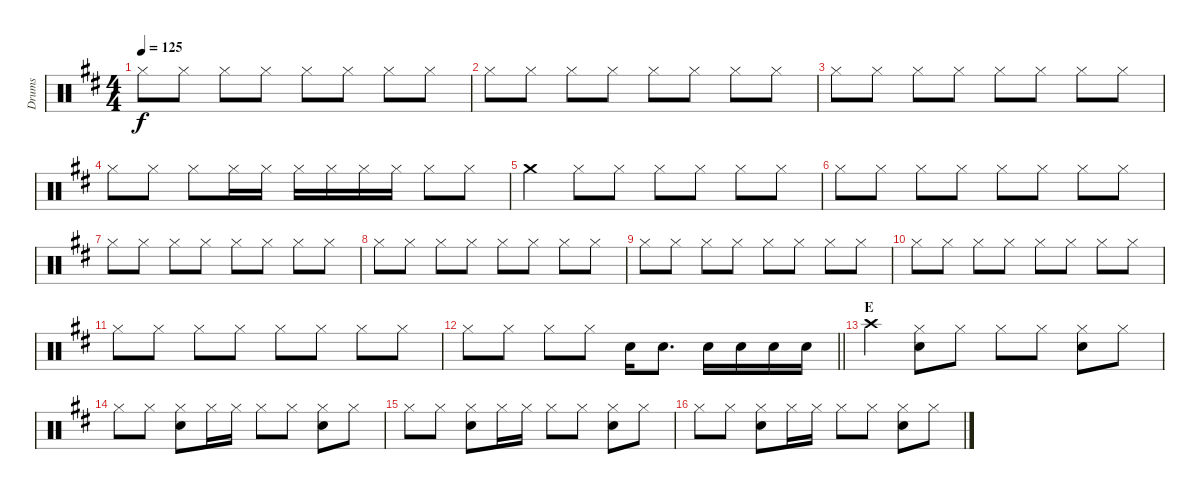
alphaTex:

\track ("Drums" "Drums") {instrument percussion}
\staff {score}
\articulation defaults
\ts (4 4)
\tempo 125
\clef neutral
\ks d "Hi-Hat (closed)".8{dy f} "Hi-Hat (closed)".8 "Hi-Hat (closed)".8 "Hi-Hat (closed)".8 "Hi-Hat (closed)".8 "Hi-Hat (closed)".8 "Hi-Hat (closed)".8 "Hi-Hat (closed)".8
|
"Hi-Hat (closed)".8 "Hi-Hat (closed)".8 "Hi-Hat (closed)".8 "Hi-Hat (closed)".8 "Hi-Hat (closed)".8 "Hi-Hat (closed)".8 "Hi-Hat (closed)".8 "Hi-Hat (closed)".8 |
"Hi-Hat (closed)".8 "Hi-Hat (closed)".8 "Hi-Hat (closed)".8 "Hi-Hat (closed)".8 "Hi-Hat (closed)".8 "Hi-Hat (closed)".8 "Hi-Hat (closed)".8 "Hi-Hat (closed)".8 |
"Hi-Hat (closed)".8 "Hi-Hat (closed)".8 "Hi-Hat (closed)".8 "Hi-Hat (closed)".16 "Hi-Hat (closed)".16 "Hi-Hat (closed)".16 "Hi-Hat (closed)".16 "Hi-Hat (closed)".16 "Hi-Hat (closed)".16 "Hi-Hat (closed)".8 "Hi-Hat (closed)".8 |
"Crash medium (hit)".4 "Hi-Hat (closed)".8 "Hi-Hat (closed)".8 "Hi-Hat (closed)".8 "Hi-Hat (closed)".8 "Hi-Hat (closed)".8 "Hi-Hat (closed)".8 |
"Hi-Hat (closed)".8 "Hi-Hat (closed)".8 "Hi-Hat (closed)".8 "Hi-Hat (closed)".8 "Hi-Hat (closed)".8 "Hi-Hat (closed)".8 "Hi-Hat (closed)".8 "Hi-Hat (closed)".8 |
"Hi-Hat (closed)".8 "Hi-Hat (closed)".8 "Hi-Hat (closed)".8 "Hi-Hat (closed)".8 "Hi-Hat (closed)".8 "Hi-Hat (closed)".8 "Hi-Hat (closed)".8 "Hi-Hat (closed)".8 |
"Hi-Hat (closed)".8 "Hi-Hat (closed)".8 "Hi-Hat (closed)".8 "Hi-Hat (closed)".8 "Hi-Hat (closed)".8 "Hi-Hat (closed)".8 "Hi-Hat (closed)".8 "Hi-Hat (closed)".8 |
"Hi-Hat (closed)".8 "Hi-Hat (closed)".8 "Hi-Hat (closed)".8 "Hi-Hat (closed)".8 "Hi-Hat (closed)".8 "Hi-Hat (closed)".8 "Hi-Hat (closed)".8 "Hi-Hat (closed)".8 |
"Hi-Hat (closed)".8 "Hi-Hat (closed)".8 "Hi-Hat (closed)".8 "Hi-Hat (closed)".8 "Hi-Hat (closed)".8 "Hi-Hat (closed)".8 "Hi-Hat (closed)".8 "Hi-Hat (closed)".8 |
"Hi-Hat (closed)".8 "Hi-Hat (closed)".8 "Hi-Hat (closed)".8 "Hi-Hat (closed)".8 "Hi-Hat (closed)".8 "Hi-Hat (closed)".8 "Hi-Hat (closed)".8 "Hi-Hat (closed)".8 |
\barLineRight lightlight "Hi-Hat (closed)".8 "Hi-Hat (closed)".8 "Hi-Hat (closed)".8 "Hi-Hat (closed)".8 "Snare (hit) 2".16 "Snare (hit) 2".8{d} "Snare (hit) 2".16 "Snare (hit) 2".16 "Snare (hit) 2".16 "Snare (hit) 2".16
|
\section ("" "E")
"Crash high (hit)".4 ("Hi-Hat (closed)" "Snare (hit) 2").8 "Hi-Hat (closed)".8 "Hi-Hat (closed)".8 "Hi-Hat (closed)".8 ("Hi-Hat (closed)" "Snare (hit) 2").8 "Hi-Hat (closed)".8 |
"Hi-Hat (closed)".8 "Hi-Hat (closed)".8 ("Hi-Hat (closed)" "Snare (hit) 2").8 "Hi-Hat (closed)".16 "Hi-Hat (closed)".16 "Hi-Hat (closed)".8 "Hi-Hat (closed)".8 ("Hi-Hat (closed)" "Snare (hit) 2").8 "Hi-Hat (closed)".8 |
"Hi-Hat (closed)".8 "Hi-Hat (closed)".8 ("Hi-Hat (closed)" "Snare (hit) 2").8 "Hi-Hat (closed)".16 "Hi-Hat (closed)".16 "Hi-Hat (closed)".8 "Hi-Hat (closed)".8 ("Hi-Hat (closed)" "Snare (hit) 2").8 "Hi-Hat (closed)".8 |
"Hi-Hat (closed)".8 "Hi-Hat (closed)".8 ("Hi-Hat (closed)" "Snare (hit) 2").8 "Hi-Hat (closed)".16 "Hi-Hat (closed)".16 "Hi-Hat (closed)".8 "Hi-Hat (closed)".8 ("Hi-Hat (closed)" "Snare (hit) 2").8 "Hi-Hat (closed)".8
